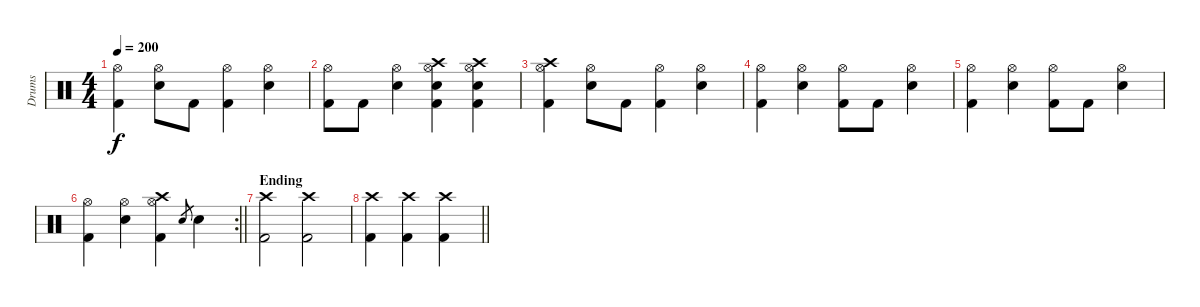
\track ("Drums" "Drums") {instrument percussion}
\staff {score}
\articulation defaults
\ts (4 4)
\tempo 200
\clef neutral
\ks c
("Hi-Hat (open)" "Kick (hit) 2").4{dy f} ("Hi-Hat (open)" "Snare (hit) 2").8 "Kick (hit) 2".8 ("Hi-Hat (open)" "Kick (hit) 2").4 ("Hi-Hat (open)" "Snare (hit) 2").4 |
("Hi-Hat (open)" "Kick (hit) 2").8 "Kick (hit) 2".8 ("Hi-Hat (open)" "Snare (hit) 2").4 ("Crash high (hit)" "Hi-Hat (open)" "Snare (hit) 2" "Kick (hit) 2").4 ("Crash high (hit)" "Hi-Hat (open)" "Snare (hit) 2" "Kick (hit) 2").4 |
("Crash high (hit)" "Hi-Hat (open)" "Kick (hit) 2").4 ("Hi-Hat (open)" "Snare (hit) 2").8 "Kick (hit) 2".8 ("Hi-Hat (open)" "Kick (hit) 2").4 ("Hi-Hat (open)" "Snare (hit) 2").4 |
("Hi-Hat (open)" "Kick (hit) 2").4 ("Hi-Hat (open)" "Snare (hit) 2").4 ("Hi-Hat (open)" "Kick (hit) 2").8 "Kick (hit) 2".8 ("Hi-Hat (open)" "Snare (hit) 2").4 |
("Hi-Hat (open)" "Kick (hit) 2").4 ("Hi-Hat (open)" "Snare (hit) 2").4 ("Hi-Hat (open)" "Kick (hit) 2").8 "Kick (hit) 2".8 ("Hi-Hat (open)" "Snare (hit) 2").4 |
\rc 2
\barLineRight lightlight
("Hi-Hat (open)" "Kick (hit) 2").4 ("Hi-Hat (open)" "Snare (hit) 2").4 ("Crash high (hit)" "Hi-Hat (open)" "Kick (hit) 2").4 "Snare (hit) 2".8{gr} "Snare (hit) 2".4 |
\section ("" "Ending")
("Crash high (hit)" "Kick (hit) 2").2 ("Crash high (hit)" "Kick (hit) 2").2 |
\barLineRight lightlight
("Crash high (hit)" "Kick (hit) 2").4 ("Crash high (hit)" "Kick (hit) 2").4 ("Crash high (hit)" "Kick (hit) 2").4
